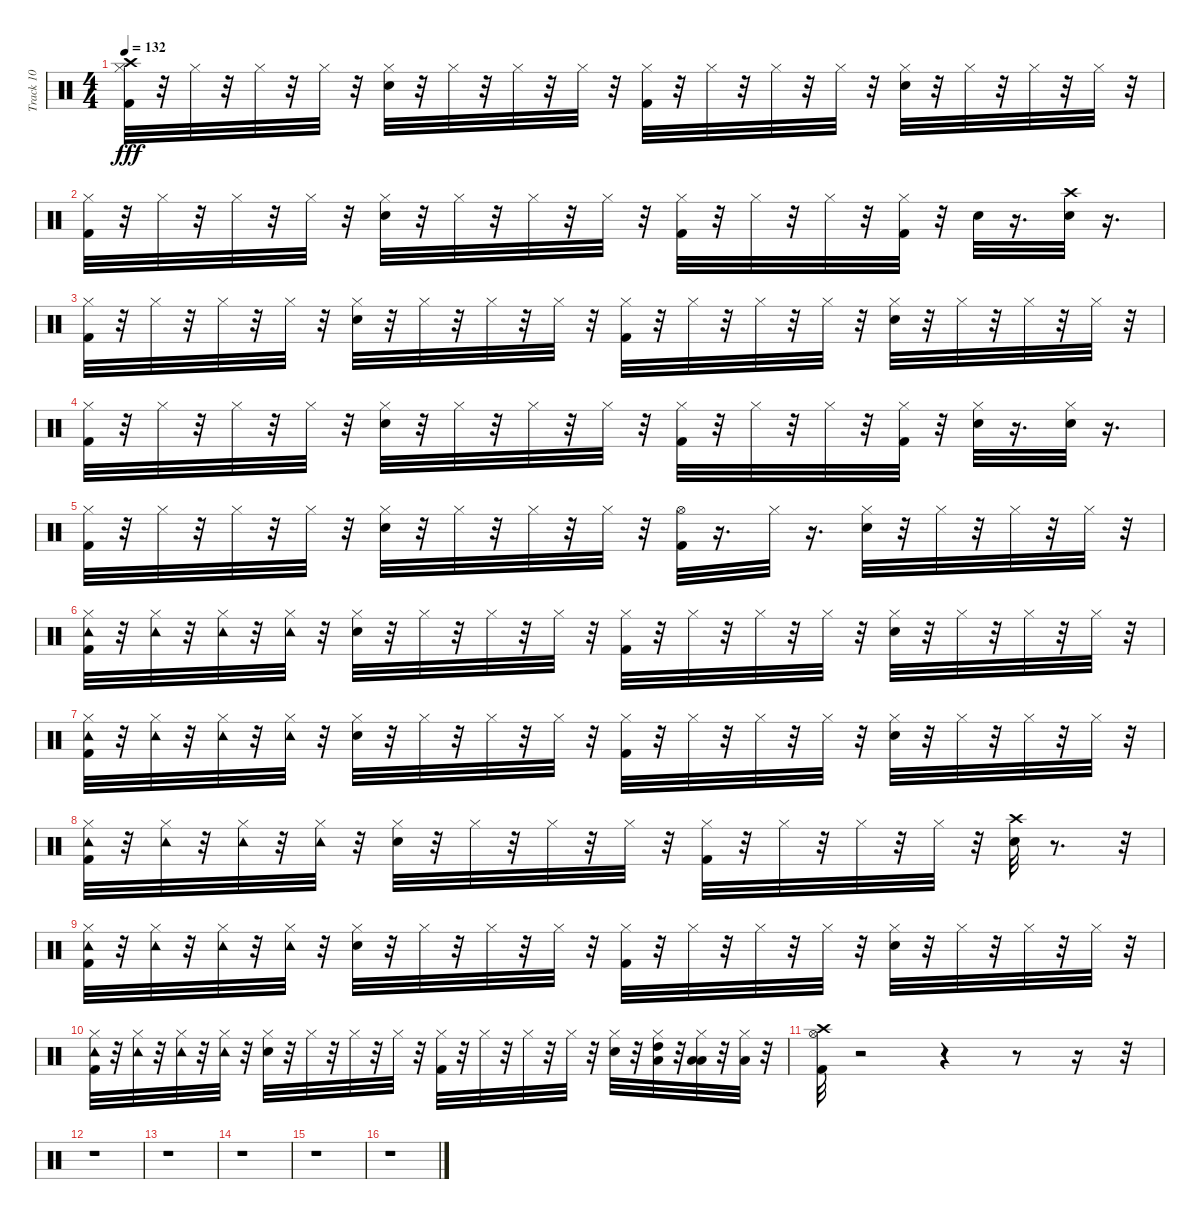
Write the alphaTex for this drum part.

\track ("Track 10" "Track 10") {instrument percussion}
\staff {score}
\articulation defaults
\ts (4 4)
\tempo 132
\clef neutral
\ks c
("Crash high (hit)" "Kick (hit) 2" "Hi-Hat (closed)").32{dy fff} r.32 "Hi-Hat (closed)".32 r.32 "Hi-Hat (closed)".32 r.32 "Hi-Hat (closed)".32 r.32 ("Snare (hit) 2" "Hi-Hat (closed)").32 r.32 "Hi-Hat (closed)".32 r.32 "Hi-Hat (closed)".32 r.32 "Hi-Hat (closed)".32 r.32 ("Kick (hit) 2" "Hi-Hat (closed)").32 r.32 "Hi-Hat (closed)".32 r.32 "Hi-Hat (closed)".32 r.32 "Hi-Hat (closed)".32 r.32 ("Snare (hit) 2" "Hi-Hat (closed)").32 r.32 "Hi-Hat (closed)".32 r.32 "Hi-Hat (closed)".32 r.32 "Hi-Hat (closed)".32 r.32 |
("Kick (hit) 2" "Hi-Hat (closed)").32 r.32 "Hi-Hat (closed)".32 r.32 "Hi-Hat (closed)".32 r.32 "Hi-Hat (closed)".32 r.32 ("Snare (hit) 2" "Hi-Hat (closed)").32 r.32 "Hi-Hat (closed)".32 r.32 "Hi-Hat (closed)".32 r.32 "Hi-Hat (closed)".32 r.32 ("Kick (hit) 2" "Hi-Hat (closed)").32 r.32 "Hi-Hat (closed)".32 r.32 "Hi-Hat (closed)".32 r.32 ("Kick (hit) 2" "Hi-Hat (closed)").32 r.32 "Snare (hit) 2".32 r.16{d} ("Crash high (hit)" "Snare (hit) 2").32 r.16{d} |
("Kick (hit) 2" "Hi-Hat (closed)").32 r.32 "Hi-Hat (closed)".32 r.32 "Hi-Hat (closed)".32 r.32 "Hi-Hat (closed)".32 r.32 ("Snare (hit) 2" "Hi-Hat (closed)").32 r.32 "Hi-Hat (closed)".32 r.32 "Hi-Hat (closed)".32 r.32 "Hi-Hat (closed)".32 r.32 ("Kick (hit) 2" "Hi-Hat (closed)").32 r.32 "Hi-Hat (closed)".32 r.32 "Hi-Hat (closed)".32 r.32 "Hi-Hat (closed)".32 r.32 ("Snare (hit) 2" "Hi-Hat (closed)").32 r.32 "Hi-Hat (closed)".32 r.32 "Hi-Hat (closed)".32 r.32 "Hi-Hat (closed)".32 r.32 |
("Kick (hit) 2" "Hi-Hat (closed)").32 r.32 "Hi-Hat (closed)".32 r.32 "Hi-Hat (closed)".32 r.32 "Hi-Hat (closed)".32 r.32 ("Snare (hit) 2" "Hi-Hat (closed)").32 r.32 "Hi-Hat (closed)".32 r.32 "Hi-Hat (closed)".32 r.32 "Hi-Hat (closed)".32 r.32 ("Kick (hit) 2" "Hi-Hat (closed)").32 r.32 "Hi-Hat (closed)".32 r.32 "Hi-Hat (closed)".32 r.32 ("Kick (hit) 2" "Hi-Hat (closed)").32 r.32 ("Snare (hit) 2" "Hi-Hat (closed)").32 r.16{d} ("Snare (hit) 2" "Hi-Hat (closed)").32 r.16{d} |
("Kick (hit) 2" "Hi-Hat (closed)").32 r.32 "Hi-Hat (closed)".32 r.32 "Hi-Hat (closed)".32 r.32 "Hi-Hat (closed)".32 r.32 ("Snare (hit) 2" "Hi-Hat (closed)").32 r.32 "Hi-Hat (closed)".32 r.32 "Hi-Hat (closed)".32 r.32 "Hi-Hat (closed)".32 r.32 ("Hi-Hat (open)" "Kick (hit) 2").32 r.16{d} "Hi-Hat (closed)".32 r.16{d} ("Snare (hit) 2" "Hi-Hat (closed)").32 r.32 "Hi-Hat (closed)".32 r.32 "Hi-Hat (closed)".32 r.32 "Hi-Hat (closed)".32 r.32 |
("Tambourine (hit)" "Kick (hit) 2" "Hi-Hat (closed)").32 r.32 ("Tambourine (hit)" "Hi-Hat (closed)").32 r.32 ("Tambourine (hit)" "Hi-Hat (closed)").32 r.32 ("Tambourine (hit)" "Hi-Hat (closed)").32 r.32 ("Snare (hit) 2" "Hi-Hat (closed)").32 r.32 "Hi-Hat (closed)".32 r.32 "Hi-Hat (closed)".32 r.32 "Hi-Hat (closed)".32 r.32 ("Kick (hit) 2" "Hi-Hat (closed)").32 r.32 "Hi-Hat (closed)".32 r.32 "Hi-Hat (closed)".32 r.32 "Hi-Hat (closed)".32 r.32 ("Snare (hit) 2" "Hi-Hat (closed)").32 r.32 "Hi-Hat (closed)".32 r.32 "Hi-Hat (closed)".32 r.32 "Hi-Hat (closed)".32 r.32 |
("Tambourine (hit)" "Kick (hit) 2" "Hi-Hat (closed)").32 r.32 ("Tambourine (hit)" "Hi-Hat (closed)").32 r.32 ("Tambourine (hit)" "Hi-Hat (closed)").32 r.32 ("Tambourine (hit)" "Hi-Hat (closed)").32 r.32 ("Snare (hit) 2" "Hi-Hat (closed)").32 r.32 "Hi-Hat (closed)".32 r.32 "Hi-Hat (closed)".32 r.32 "Hi-Hat (closed)".32 r.32 ("Kick (hit) 2" "Hi-Hat (closed)").32 r.32 "Hi-Hat (closed)".32 r.32 "Hi-Hat (closed)".32 r.32 "Hi-Hat (closed)".32 r.32 ("Snare (hit) 2" "Hi-Hat (closed)").32 r.32 "Hi-Hat (closed)".32 r.32 "Hi-Hat (closed)".32 r.32 "Hi-Hat (closed)".32 r.32 |
("Tambourine (hit)" "Kick (hit) 2" "Hi-Hat (closed)").32 r.32 ("Tambourine (hit)" "Hi-Hat (closed)").32 r.32 ("Tambourine (hit)" "Hi-Hat (closed)").32 r.32 ("Tambourine (hit)" "Hi-Hat (closed)").32 r.32 ("Snare (hit) 2" "Hi-Hat (closed)").32 r.32 "Hi-Hat (closed)".32 r.32 "Hi-Hat (closed)".32 r.32 "Hi-Hat (closed)".32 r.32 ("Kick (hit) 2" "Hi-Hat (closed)").32 r.32 "Hi-Hat (closed)".32 r.32 "Hi-Hat (closed)".32 r.32 "Hi-Hat (closed)".32 r.32 ("Crash high (hit)" "Snare (hit) 2").32 r.8{d} r.32 |
("Tambourine (hit)" "Kick (hit) 2" "Hi-Hat (closed)").32 r.32 ("Tambourine (hit)" "Hi-Hat (closed)").32 r.32 ("Tambourine (hit)" "Hi-Hat (closed)").32 r.32 ("Tambourine (hit)" "Hi-Hat (closed)").32 r.32 ("Snare (hit) 2" "Hi-Hat (closed)").32 r.32 "Hi-Hat (closed)".32 r.32 "Hi-Hat (closed)".32 r.32 "Hi-Hat (closed)".32 r.32 ("Kick (hit) 2" "Hi-Hat (closed)").32 r.32 "Hi-Hat (closed)".32 r.32 "Hi-Hat (closed)".32 r.32 "Hi-Hat (closed)".32 r.32 ("Snare (hit) 2" "Hi-Hat (closed)").32 r.32 "Hi-Hat (closed)".32 r.32 "Hi-Hat (closed)".32 r.32 "Hi-Hat (closed)".32 r.32 |
("Tambourine (hit)" "Kick (hit) 2" "Hi-Hat (closed)").32 r.32 ("Tambourine (hit)" "Hi-Hat (closed)").32 r.32 ("Tambourine (hit)" "Hi-Hat (closed)").32 r.32 ("Tambourine (hit)" "Hi-Hat (closed)").32 r.32 ("Snare (hit) 2" "Hi-Hat (closed)").32 r.32 "Hi-Hat (closed)".32 r.32 "Hi-Hat (closed)".32 r.32 "Hi-Hat (closed)".32 r.32 ("Kick (hit) 2" "Hi-Hat (closed)").32 r.32 "Hi-Hat (closed)".32 r.32 "Hi-Hat (closed)".32 r.32 "Hi-Hat (closed)".32 r.32 ("Snare (hit) 2" "Hi-Hat (closed)").32 r.32 ("Low Tom (hit)" "High Tom (hit)" "Hi-Hat (closed)").32 r.32 ("Low Tom (hit)" "Low Floor Tom (hit)" "Hi-Hat (closed)").32 r.32 ("Low Floor Tom (hit)" "Hi-Hat (closed)").32 r.32 |
("Hi-Hat (open)" "Crash high (hit)" "Kick (hit) 2").32 r.2 r.4 r.8 r.16 r.32 |
r.1 |
r.1 |
r.1 |
r.1 |
r.1
